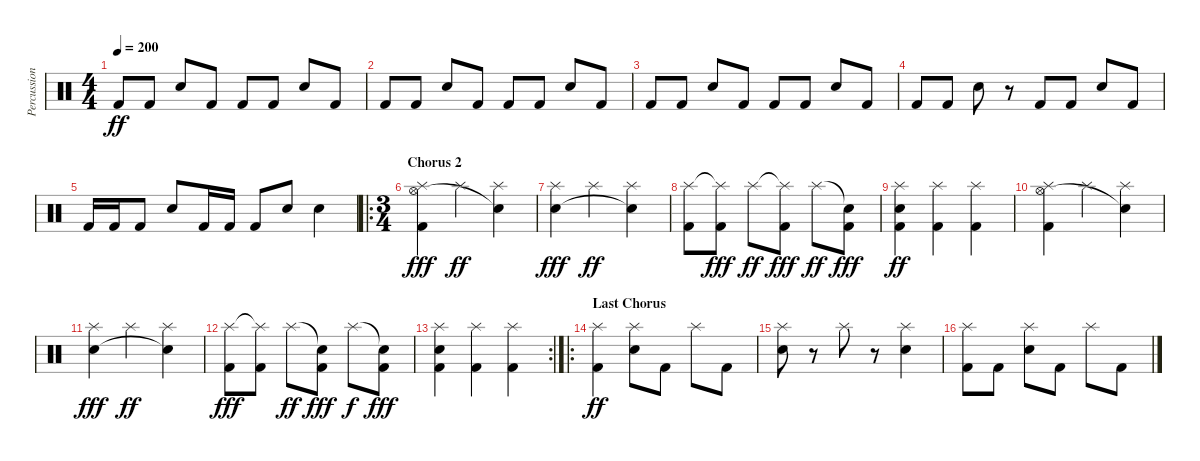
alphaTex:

\track ("Percussion" "Percussion") {instrument percussion}
\staff {score}
\articulation defaults
\ts (4 4)
\tempo 200
\clef neutral
\ks c "Kick (hit) 2".8{dy ff} "Kick (hit) 2".8 "Electric Snare (hit)".8 "Kick (hit) 2".8 "Kick (hit) 2".8 "Kick (hit) 2".8 "Electric Snare (hit)".8 "Kick (hit) 2".8
|
"Kick (hit) 2".8 "Kick (hit) 2".8 "Electric Snare (hit)".8 "Kick (hit) 2".8 "Kick (hit) 2".8 "Kick (hit) 2".8 "Electric Snare (hit)".8 "Kick (hit) 2".8 |
"Kick (hit) 2".8 "Kick (hit) 2".8 "Electric Snare (hit)".8 "Kick (hit) 2".8 "Kick (hit) 2".8 "Kick (hit) 2".8 "Electric Snare (hit)".8 "Kick (hit) 2".8 |
"Kick (hit) 2".8 "Kick (hit) 2".8 "Electric Snare (hit)".8 r.8 "Kick (hit) 2".8 "Kick (hit) 2".8 "Electric Snare (hit)".8 "Kick (hit) 2".8 |
"Kick (hit) 2".16 "Kick (hit) 2".16 "Kick (hit) 2".8 "Electric Snare (hit)".8 "Kick (hit) 2".16 "Kick (hit) 2".16 "Kick (hit) 2".8 "Electric Snare (hit)".8 "Electric Snare (hit)".4 |
\ro
\ts (3 4)
\section ("" "Chorus 2")
("Splash (hit)" "Hi-Hat (open)" "Kick (hit) 2").4{dy fff} "Splash (hit)".4{dy ff} ("Splash (hit)" "Snare (hit)"{t}).4 |
("Splash (hit)" "Electric Snare (hit)").4{dy fff} "Splash (hit)".4{dy ff} ("Splash (hit)" "Snare (hit)"{t}).4 |
("Splash (hit)" "Kick (hit) 2").8 ("Splash (hit)"{t} "Kick (hit) 2").8{dy fff} "Splash (hit)".8{dy ff} ("Splash (hit)"{t} "Kick (hit) 2").8{dy fff} "Splash (hit)".8{dy ff} ("Snare (hit)"{t} "Kick (hit) 2").8{dy fff} |
("Splash (hit)" "Electric Snare (hit)" "Kick (hit) 2").4{dy ff} ("Splash (hit)" "Kick (hit) 2").4 ("Splash (hit)" "Kick (hit) 2").4 |
("Splash (hit)" "Hi-Hat (open)" "Kick (hit) 2").4 "Splash (hit)".4 ("Splash (hit)" "Snare (hit)"{t}).4 |
("Splash (hit)" "Electric Snare (hit)").4{dy fff} "Splash (hit)".4{dy ff} ("Splash (hit)" "Snare (hit)"{t}).4 |
("Splash (hit)" "Kick (hit) 2").8{dy fff} ("Splash (hit)"{t} "Kick (hit) 2").8 "Splash (hit)".8{dy ff} ("Snare (hit)"{t} "Kick (hit) 2").8{dy fff} "Splash (hit)".8{dy f} ("Snare (hit)"{t} "Kick (hit) 2").8{dy fff} |
\rc 2
("Splash (hit)" "Electric Snare (hit)" "Kick (hit) 2").4 ("Splash (hit)" "Kick (hit) 2").4 ("Splash (hit)" "Kick (hit) 2").4 |
\ro
\section ("" "Last Chorus")
("Splash (hit)" "Kick (hit) 2").4{dy ff} ("Splash (hit)" "Electric Snare (hit)").8 "Kick (hit) 2".8 "Splash (hit)".8 "Kick (hit) 2".8 |
("Splash (hit)" "Electric Snare (hit)").8 r.8 "Splash (hit)".8 r.8 ("Splash (hit)" "Electric Snare (hit)").4 |
("Splash (hit)" "Kick (hit) 2").8 "Kick (hit) 2".8 ("Splash (hit)" "Electric Snare (hit)").8 "Kick (hit) 2".8 "Splash (hit)".8 "Kick (hit) 2".8
